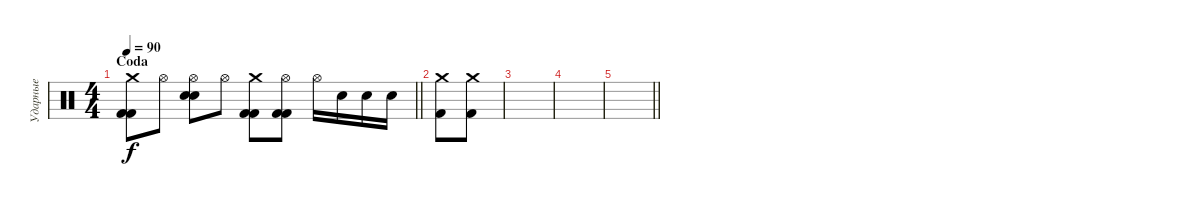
\track ("Ударные" "Ударные") {instrument percussion}
\staff {score}
\articulation defaults
\ts (4 4)
\section ("" "Coda")
\tempo 90
\clef neutral
\barLineRight lightlight
\ks c
("Crash medium (hit)" "Kick (hit) 2" "Kick (hit) 2").8{dy f} "Hi-Hat (open)".8 ("Hi-Hat (open)" "Snare (hit) 2" "Snare (hit) 2").8 "Hi-Hat (open)".8 ("Crash medium (hit)" "Kick (hit) 2" "Kick (hit) 2").8 ("Hi-Hat (open)" "Kick (hit) 2" "Kick (hit) 2").8 "Hi-Hat (open)".16 "Snare (hit) 2".16 "Snare (hit) 2".16 "Snare (hit) 2".16 |
("Crash medium (hit)" "Kick (hit) 2").8 ("Crash medium (hit)" "Kick (hit) 2").8 |
|
|
\barLineRight lightlight
